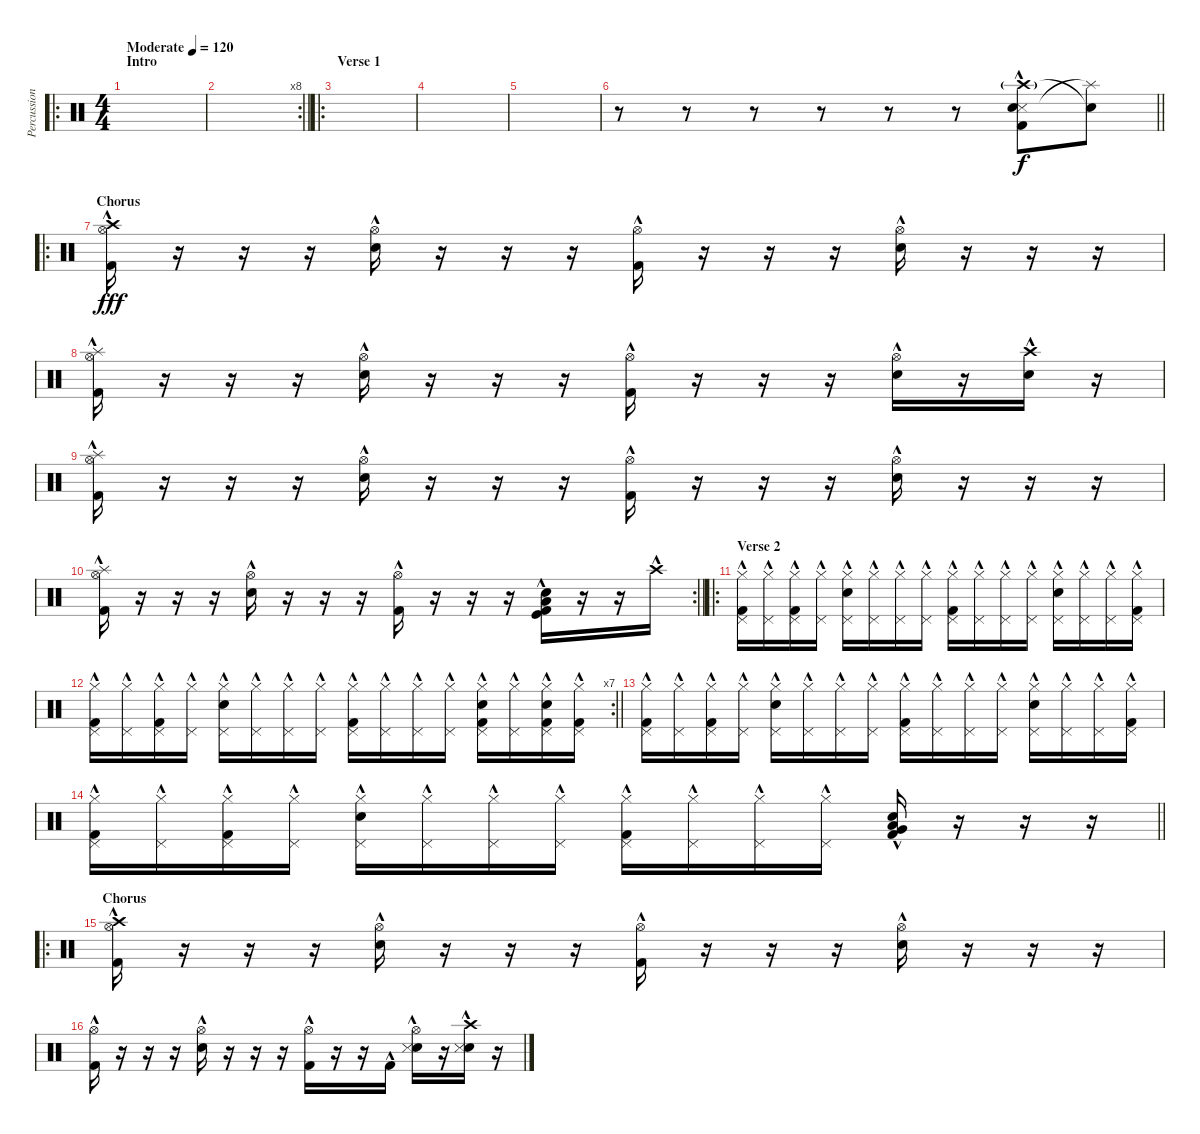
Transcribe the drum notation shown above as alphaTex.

\track ("Percussion" "Percussion") {instrument percussion}
\staff {score}
\articulation defaults
\ro
\ts (4 4)
\section ("" "Intro")
\tempo (120 "Moderate")
\clef neutral
\ks c
|
\rc 8
\barLineRight lightlight
|
\ro
\section ("" "Verse 1")
|
|
|
\barLineRight lightlight
r.8 r.8 r.8 r.8 r.8 r.8 ("Snare (side stick) 3"{hac} "Crash high (hit)"{g} "Snare (hit) 2"{hac} "Kick (hit) 2"{hac}).8 ("Splash (hit)"{t} "Snare (hit) 2"{t}).8{dy f} |
\ro
\section ("" "Chorus")
("Crash high (hit)"{hac} "Hi-Hat (open)"{hac} "Kick (hit) 2"{hac}).16{dy fff} r.16 r.16 r.16 ("Hi-Hat (open)"{hac} "Snare (hit) 2"{hac}).16 r.16 r.16 r.16 ("Hi-Hat (open)"{hac} "Kick (hit) 2"{hac}).16 r.16 r.16 r.16 ("Hi-Hat (open)"{hac} "Snare (hit) 2"{hac}).16 r.16 r.16 r.16 |
("Splash (hit)"{hac} "Hi-Hat (open)"{hac} "Kick (hit) 2"{hac}).16 r.16 r.16 r.16 ("Hi-Hat (open)"{hac} "Snare (hit) 2"{hac}).16 r.16 r.16 r.16 ("Hi-Hat (open)"{hac} "Kick (hit) 2"{hac}).16 r.16 r.16 r.16 ("Hi-Hat (open)"{hac} "Snare (hit) 2"{hac}).16 r.16 ("Crash high (hit)"{hac} "Snare (hit) 2"{hac}).16 r.16 |
("Splash (hit)"{hac} "Hi-Hat (open)"{hac} "Kick (hit) 2"{hac}).16 r.16 r.16 r.16 ("Hi-Hat (open)"{hac} "Snare (hit) 2"{hac}).16 r.16 r.16 r.16 ("Hi-Hat (open)"{hac} "Kick (hit) 2"{hac}).16 r.16 r.16 r.16 ("Hi-Hat (open)"{hac} "Snare (hit) 2"{hac}).16 r.16 r.16 r.16 |
\rc 2
\barLineRight lightlight
("Splash (hit)"{hac} "Hi-Hat (open)"{hac} "Kick (hit) 2"{hac}).16 r.16 r.16 r.16 ("Hi-Hat (open)"{hac} "Snare (hit) 2"{hac}).16 r.16 r.16 r.16 ("Hi-Hat (open)"{hac} "Kick (hit) 2"{hac}).16 r.16 r.16 r.16 ("Snare (hit) 2"{hac} "Low Floor Tom (hit)"{hac} "Kick (hit)"{hac} "Kick (hit) 2"{hac}).16 r.16 r.16 "Crash high (hit)"{hac}.16 |
\ro
\section ("" "Verse 2")
("Hi-Hat (closed)"{hac} "Pedal Hi-Hat (hit)"{hac} "Kick (hit) 2"{hac}).16 ("Hi-Hat (closed)"{hac} "Pedal Hi-Hat (hit)"{hac}).16 ("Hi-Hat (closed)"{hac} "Pedal Hi-Hat (hit)"{hac} "Kick (hit) 2"{hac}).16 ("Hi-Hat (closed)"{hac} "Pedal Hi-Hat (hit)"{hac}).16 ("Hi-Hat (closed)"{hac} "Pedal Hi-Hat (hit)"{hac} "Electric Snare (hit)"{hac}).16 ("Hi-Hat (closed)"{hac} "Pedal Hi-Hat (hit)"{hac}).16 ("Hi-Hat (closed)"{hac} "Pedal Hi-Hat (hit)"{hac}).16 ("Hi-Hat (closed)"{hac} "Pedal Hi-Hat (hit)"{hac}).16 ("Hi-Hat (closed)"{hac} "Pedal Hi-Hat (hit)"{hac} "Kick (hit) 2"{hac}).16 ("Hi-Hat (closed)"{hac} "Pedal Hi-Hat (hit)"{hac}).16 ("Hi-Hat (closed)"{hac} "Pedal Hi-Hat (hit)"{hac}).16 ("Hi-Hat (closed)"{hac} "Pedal Hi-Hat (hit)"{hac}).16 ("Hi-Hat (closed)"{hac} "Pedal Hi-Hat (hit)"{hac} "Electric Snare (hit)"{hac}).16 ("Hi-Hat (closed)"{hac} "Pedal Hi-Hat (hit)"{hac}).16 ("Hi-Hat (closed)"{hac} "Pedal Hi-Hat (hit)"{hac}).16 ("Hi-Hat (closed)"{hac} "Pedal Hi-Hat (hit)"{hac} "Kick (hit) 2"{hac}).16 |
\rc 7
\barLineRight lightlight
("Hi-Hat (closed)"{hac} "Pedal Hi-Hat (hit)"{hac} "Kick (hit) 2"{hac}).16 ("Hi-Hat (closed)"{hac} "Pedal Hi-Hat (hit)"{hac}).16 ("Hi-Hat (closed)"{hac} "Pedal Hi-Hat (hit)"{hac} "Kick (hit) 2"{hac}).16 ("Hi-Hat (closed)"{hac} "Pedal Hi-Hat (hit)"{hac}).16 ("Hi-Hat (closed)"{hac} "Pedal Hi-Hat (hit)"{hac} "Electric Snare (hit)"{hac}).16 ("Hi-Hat (closed)"{hac} "Pedal Hi-Hat (hit)"{hac}).16 ("Hi-Hat (closed)"{hac} "Pedal Hi-Hat (hit)"{hac}).16 ("Hi-Hat (closed)"{hac} "Pedal Hi-Hat (hit)"{hac}).16 ("Hi-Hat (closed)"{hac} "Pedal Hi-Hat (hit)"{hac} "Kick (hit) 2"{hac}).16 ("Hi-Hat (closed)"{hac} "Pedal Hi-Hat (hit)"{hac}).16 ("Hi-Hat (closed)"{hac} "Pedal Hi-Hat (hit)"{hac}).16 ("Hi-Hat (closed)"{hac} "Pedal Hi-Hat (hit)"{hac}).16 ("Hi-Hat (closed)"{hac} "Pedal Hi-Hat (hit)"{hac} "Electric Snare (hit)"{hac} "Kick (hit) 2"{hac}).16 ("Hi-Hat (closed)"{hac} "Pedal Hi-Hat (hit)"{hac}).16 ("Hi-Hat (closed)"{hac} "Pedal Hi-Hat (hit)"{hac} "Electric Snare (hit)"{hac} "Kick (hit) 2"{hac}).16 ("Hi-Hat (closed)"{hac} "Pedal Hi-Hat (hit)"{hac} "Kick (hit) 2"{hac}).16 |
("Hi-Hat (closed)"{hac} "Pedal Hi-Hat (hit)"{hac} "Kick (hit) 2"{hac}).16 ("Hi-Hat (closed)"{hac} "Pedal Hi-Hat (hit)"{hac}).16 ("Hi-Hat (closed)"{hac} "Pedal Hi-Hat (hit)"{hac} "Kick (hit) 2"{hac}).16 ("Hi-Hat (closed)"{hac} "Pedal Hi-Hat (hit)"{hac}).16 ("Hi-Hat (closed)"{hac} "Pedal Hi-Hat (hit)"{hac} "Electric Snare (hit)"{hac}).16 ("Hi-Hat (closed)"{hac} "Pedal Hi-Hat (hit)"{hac}).16 ("Hi-Hat (closed)"{hac} "Pedal Hi-Hat (hit)"{hac}).16 ("Hi-Hat (closed)"{hac} "Pedal Hi-Hat (hit)"{hac}).16 ("Hi-Hat (closed)"{hac} "Pedal Hi-Hat (hit)"{hac} "Kick (hit) 2"{hac}).16 ("Hi-Hat (closed)"{hac} "Pedal Hi-Hat (hit)"{hac}).16 ("Hi-Hat (closed)"{hac} "Pedal Hi-Hat (hit)"{hac}).16 ("Hi-Hat (closed)"{hac} "Pedal Hi-Hat (hit)"{hac}).16 ("Hi-Hat (closed)"{hac} "Pedal Hi-Hat (hit)"{hac} "Electric Snare (hit)"{hac}).16 ("Hi-Hat (closed)"{hac} "Pedal Hi-Hat (hit)"{hac}).16 ("Hi-Hat (closed)"{hac} "Pedal Hi-Hat (hit)"{hac}).16 ("Hi-Hat (closed)"{hac} "Pedal Hi-Hat (hit)"{hac} "Kick (hit) 2"{hac}).16 |
\barLineRight lightlight
("Hi-Hat (closed)"{hac} "Pedal Hi-Hat (hit)"{hac} "Kick (hit) 2"{hac}).16 ("Hi-Hat (closed)"{hac} "Pedal Hi-Hat (hit)"{hac}).16 ("Hi-Hat (closed)"{hac} "Pedal Hi-Hat (hit)"{hac} "Kick (hit) 2"{hac}).16 ("Hi-Hat (closed)"{hac} "Pedal Hi-Hat (hit)"{hac}).16 ("Hi-Hat (closed)"{hac} "Pedal Hi-Hat (hit)"{hac} "Electric Snare (hit)"{hac}).16 ("Hi-Hat (closed)"{hac} "Pedal Hi-Hat (hit)"{hac}).16 ("Hi-Hat (closed)"{hac} "Pedal Hi-Hat (hit)"{hac}).16 ("Hi-Hat (closed)"{hac} "Pedal Hi-Hat (hit)"{hac}).16 ("Hi-Hat (closed)"{hac} "Pedal Hi-Hat (hit)"{hac} "Kick (hit) 2"{hac}).16 ("Hi-Hat (closed)"{hac} "Pedal Hi-Hat (hit)"{hac}).16 ("Hi-Hat (closed)"{hac} "Pedal Hi-Hat (hit)"{hac}).16 ("Hi-Hat (closed)"{hac} "Pedal Hi-Hat (hit)"{hac}).16 ("Low Tom (hit)"{hac} "Very Low Tom (hit)"{hac} "Snare (hit) 2"{hac} "Kick (hit) 2"{hac}).16 r.16 r.16 r.16 |
\ro
\section ("" "Chorus")
("Crash high (hit)"{hac} "Hi-Hat (open)"{hac} "Kick (hit) 2"{hac}).16 r.16 r.16 r.16 ("Hi-Hat (open)"{hac} "Electric Snare (hit)"{hac}).16 r.16 r.16 r.16 ("Hi-Hat (open)"{hac} "Kick (hit) 2"{hac}).16 r.16 r.16 r.16 ("Hi-Hat (open)"{hac} "Electric Snare (hit)"{hac}).16 r.16 r.16 r.16 |
("Hi-Hat (open)"{hac} "Kick (hit) 2"{hac}).16 r.16 r.16 r.16 ("Hi-Hat (open)"{hac} "Electric Snare (hit)"{hac}).16 r.16 r.16 r.16 ("Hi-Hat (open)"{hac} "Kick (hit) 2"{hac}).16 r.16 r.16 "Kick (hit) 2"{hac}.16 ("Hi-Hat (open)"{hac} "Electric Snare (hit)"{hac} "Snare (side stick) 3"{hac}).16 r.16 ("Crash high (hit)"{hac} "Electric Snare (hit)"{hac} "Snare (side stick) 3"{hac}).16 r.16
